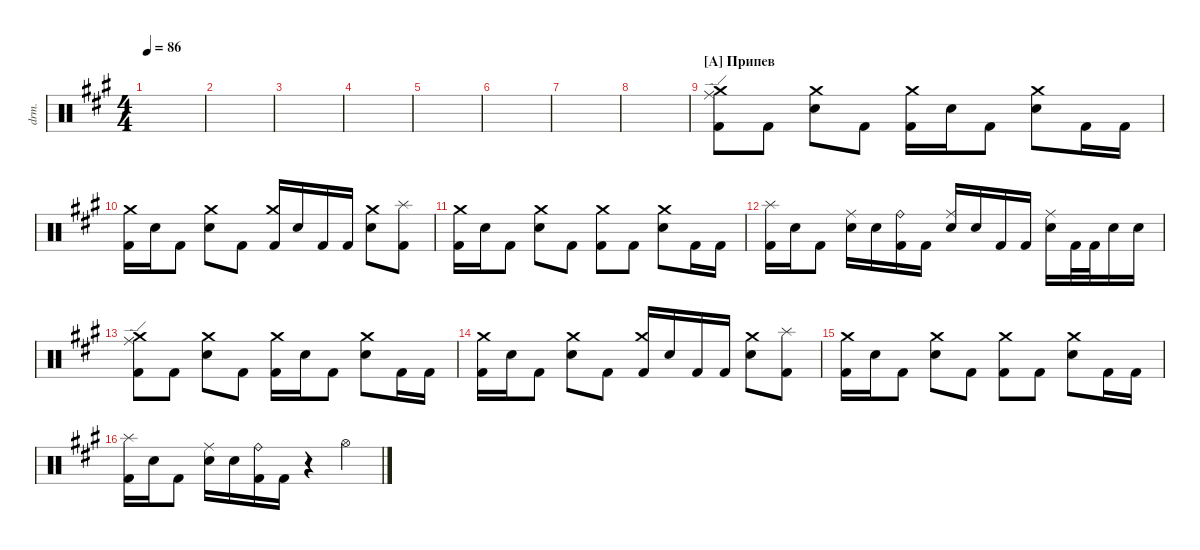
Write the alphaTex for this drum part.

\defaultSystemsLayout 4
\hideDynamics
\bracketExtendMode nobrackets
\track ("Drumkit" "drm.") {instrument percussion}
\staff {score}
\articulation defaults
\ts (4 4)
\tempo 86
\clef neutral
\ks f#minor
|
|
|
|
|
|
|
|
\section ("A" "Припев")
("Kick (hit) 2"{acc forcenatural} "Crash medium (hit)"{acc forcenatural} "Ride (edge)"{acc forcenatural}).8{beam Down} "Kick (hit) 2"{acc forcenatural}.8{beam Down} ("Snare (hit) 2"{acc forcenatural} "Crash medium (hit)"{acc forcenatural}).8{beam Down} "Kick (hit) 2"{acc forcenatural}.8{beam Down} ("Kick (hit) 2"{acc forcenatural} "Crash medium (hit)"{acc forcenatural}).16{beam Down} "Snare (hit) 2"{acc forcenatural}.16{beam Down} "Kick (hit) 2"{acc forcenatural}.8{beam Down} ("Snare (hit) 2"{acc forcenatural} "Crash medium (hit)"{acc forcenatural}).8{beam Down} "Kick (hit) 2"{acc forcenatural}.16{beam Down} "Kick (hit) 2"{acc forcenatural}.16{beam Down} |
("Kick (hit) 2"{acc forcenatural} "Crash medium (hit)"{acc forcenatural}).16{beam Down} "Snare (hit) 2"{acc forcenatural}.16{beam Down} "Kick (hit) 2"{acc forcenatural}.8{beam Down} ("Snare (hit) 2"{acc forcenatural} "Crash medium (hit)"{acc forcenatural}).8{beam Down} "Kick (hit) 2"{acc forcenatural}.8{beam Down} ("Kick (hit) 2"{acc forcenatural} "Crash medium (hit)"{acc forcenatural}).16{beam Up} "Snare (hit) 2"{acc forcenatural}.16{beam Up} "Kick (hit) 2"{acc forcenatural}.16{beam Up} "Kick (hit) 2"{acc forcenatural}.16{beam Up} ("Snare (hit) 2"{acc forcenatural} "Crash medium (hit)"{acc forcenatural}).8{beam Down} ("Kick (hit) 2"{acc forcenatural} "Splash (hit)"{acc forcenatural}).8{beam Down} |
("Kick (hit) 2"{acc forcenatural} "Crash medium (hit)"{acc forcenatural}).16{beam Down} "Snare (hit) 2"{acc forcenatural}.16{beam Down} "Kick (hit) 2"{acc forcenatural}.8{beam Down} ("Snare (hit) 2"{acc forcenatural} "Crash medium (hit)"{acc forcenatural}).8{beam Down} "Kick (hit) 2"{acc forcenatural}.8{beam Down} ("Kick (hit) 2"{acc forcenatural} "Crash medium (hit)"{acc forcenatural}).8{beam Down} "Kick (hit) 2"{acc forcenatural}.8{beam Down} ("Snare (hit) 2"{acc forcenatural} "Crash medium (hit)"{acc forcenatural}).8{beam Down} "Kick (hit) 2"{acc forcenatural}.16{beam Down} "Kick (hit) 2"{acc forcenatural}.16{beam Down} |
("Kick (hit) 2"{acc forcenatural} "Splash (hit)"{acc forcenatural}).16{beam Down} "Snare (hit) 2"{acc forcenatural}.16{beam Down} "Kick (hit) 2"{acc forcenatural}.8{beam Down} ("Snare (hit) 2"{acc forcenatural} "Ride (middle)"{acc forcenatural}).16{beam Down} "Snare (hit) 2"{acc forcenatural}.16{beam Down} ("Kick (hit) 2"{acc forcenatural} "Ride (bell)"{acc forcenatural}).16{beam Down} "Kick (hit) 2"{acc forcenatural}.16{beam Down} ("Snare (hit) 2"{acc forcenatural} "Ride (middle)"{acc forcenatural}).16{beam Up} "Snare (hit) 2"{acc forcenatural}.16{beam Up} "Kick (hit) 2"{acc forcenatural}.16{beam Up} "Kick (hit) 2"{acc forcenatural}.16{beam Up} ("Snare (hit) 2"{acc forcenatural} "Ride (middle)"{acc forcenatural}).16{beam Down} "Kick (hit) 2"{acc forcenatural}.32{beam Down} "Kick (hit) 2"{acc forcenatural}.32{beam Down} "Snare (hit) 2"{acc forcenatural}.16{beam Down} "Snare (hit) 2"{acc forcenatural}.16{beam Down} |
("Kick (hit) 2"{acc forcenatural} "Crash medium (hit)"{acc forcenatural} "Ride (edge)"{acc forcenatural}).8{beam Down} "Kick (hit) 2"{acc forcenatural}.8{beam Down} ("Snare (hit) 2"{acc forcenatural} "Crash medium (hit)"{acc forcenatural}).8{beam Down} "Kick (hit) 2"{acc forcenatural}.8{beam Down} ("Kick (hit) 2"{acc forcenatural} "Crash medium (hit)"{acc forcenatural}).16{beam Down} "Snare (hit) 2"{acc forcenatural}.16{beam Down} "Kick (hit) 2"{acc forcenatural}.8{beam Down} ("Snare (hit) 2"{acc forcenatural} "Crash medium (hit)"{acc forcenatural}).8{beam Down} "Kick (hit) 2"{acc forcenatural}.16{beam Down} "Kick (hit) 2"{acc forcenatural}.16{beam Down} |
("Kick (hit) 2"{acc forcenatural} "Crash medium (hit)"{acc forcenatural}).16{beam Down} "Snare (hit) 2"{acc forcenatural}.16{beam Down} "Kick (hit) 2"{acc forcenatural}.8{beam Down} ("Snare (hit) 2"{acc forcenatural} "Crash medium (hit)"{acc forcenatural}).8{beam Down} "Kick (hit) 2"{acc forcenatural}.8{beam Down} ("Kick (hit) 2"{acc forcenatural} "Crash medium (hit)"{acc forcenatural}).16{beam Up} "Snare (hit) 2"{acc forcenatural}.16{beam Up} "Kick (hit) 2"{acc forcenatural}.16{beam Up} "Kick (hit) 2"{acc forcenatural}.16{beam Up} ("Snare (hit) 2"{acc forcenatural} "Crash medium (hit)"{acc forcenatural}).8{beam Down} ("Kick (hit) 2"{acc forcenatural} "Splash (hit)"{acc forcenatural}).8{beam Down} |
("Kick (hit) 2"{acc forcenatural} "Crash medium (hit)"{acc forcenatural}).16{beam Down} "Snare (hit) 2"{acc forcenatural}.16{beam Down} "Kick (hit) 2"{acc forcenatural}.8{beam Down} ("Snare (hit) 2"{acc forcenatural} "Crash medium (hit)"{acc forcenatural}).8{beam Down} "Kick (hit) 2"{acc forcenatural}.8{beam Down} ("Kick (hit) 2"{acc forcenatural} "Crash medium (hit)"{acc forcenatural}).8{beam Down} "Kick (hit) 2"{acc forcenatural}.8{beam Down} ("Snare (hit) 2"{acc forcenatural} "Crash medium (hit)"{acc forcenatural}).8{beam Down} "Kick (hit) 2"{acc forcenatural}.16{beam Down} "Kick (hit) 2"{acc forcenatural}.16{beam Down} |
("Kick (hit) 2"{acc forcenatural} "Splash (hit)"{acc forcenatural}).16{beam Down} "Snare (hit) 2"{acc forcenatural}.16{beam Down} "Kick (hit) 2"{acc forcenatural}.8{beam Down} ("Snare (hit) 2"{acc forcenatural} "Ride (middle)"{acc forcenatural}).16{beam Down} "Snare (hit) 2"{acc forcenatural}.16{beam Down} ("Kick (hit) 2"{acc forcenatural} "Ride (bell)"{acc forcenatural}).16{beam Down} "Kick (hit) 2"{acc forcenatural}.16{beam Down} r.4{beam Down} "Hi-Hat (open)"{acc forcenatural}.4{beam Down}
